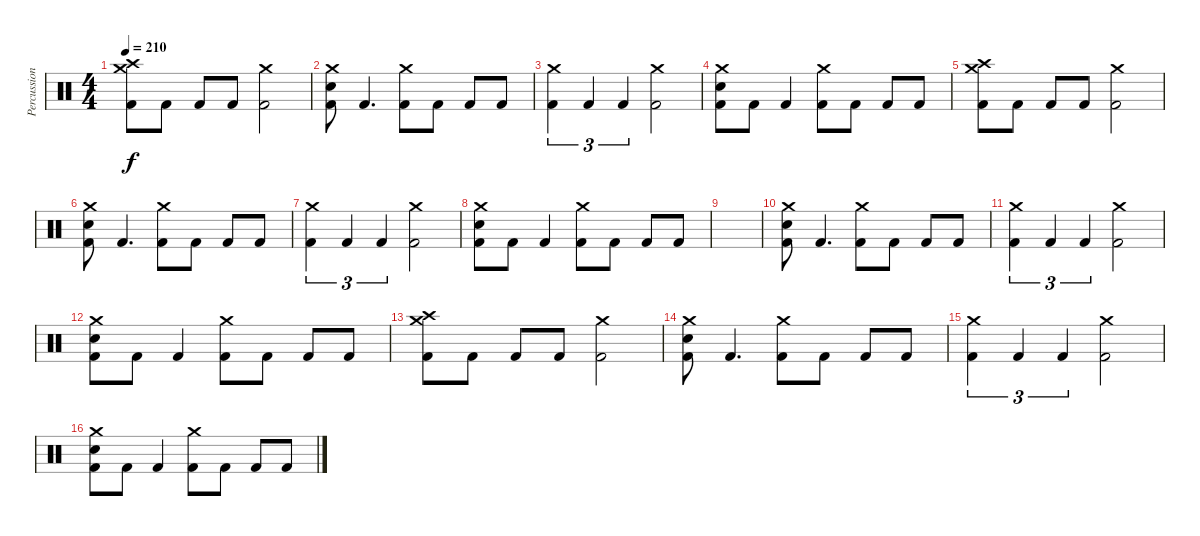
\track ("Percussion" "Percussion") {instrument percussion}
\staff {score}
\articulation defaults
\ts (4 4)
\tempo 210
\clef neutral
\ks c
("Crash high (hit)" "Crash medium (hit)" "Kick (hit) 2").8{dy f} "Kick (hit) 2".8 "Kick (hit) 2".8 "Kick (hit) 2".8 ("Crash medium (hit)" "Kick (hit) 2").2 |
("Crash medium (hit)" "Electric Snare (hit)" "Kick (hit) 2").8 "Kick (hit) 2".4{d} ("Crash medium (hit)" "Kick (hit) 2").8 "Kick (hit) 2".8 "Kick (hit) 2".8 "Kick (hit) 2".8 |
("Crash medium (hit)" "Kick (hit) 2").4{tu (3 2)} "Kick (hit) 2".4{tu (3 2)} "Kick (hit) 2".4{tu (3 2)} ("Crash medium (hit)" "Kick (hit) 2").2 |
("Crash medium (hit)" "Electric Snare (hit)" "Kick (hit) 2").8 "Kick (hit) 2".8 "Kick (hit) 2".4 ("Crash medium (hit)" "Kick (hit) 2").8 "Kick (hit) 2".8 "Kick (hit) 2".8 "Kick (hit) 2".8 |
("Crash high (hit)" "Crash medium (hit)" "Kick (hit) 2").8 "Kick (hit) 2".8 "Kick (hit) 2".8 "Kick (hit) 2".8 ("Crash medium (hit)" "Kick (hit) 2").2 |
("Crash medium (hit)" "Electric Snare (hit)" "Kick (hit) 2").8 "Kick (hit) 2".4{d} ("Crash medium (hit)" "Kick (hit) 2").8 "Kick (hit) 2".8 "Kick (hit) 2".8 "Kick (hit) 2".8 |
("Crash medium (hit)" "Kick (hit) 2").4{tu (3 2)} "Kick (hit) 2".4{tu (3 2)} "Kick (hit) 2".4{tu (3 2)} ("Crash medium (hit)" "Kick (hit) 2").2 |
("Crash medium (hit)" "Electric Snare (hit)" "Kick (hit) 2").8 "Kick (hit) 2".8 "Kick (hit) 2".4 ("Crash medium (hit)" "Kick (hit) 2").8 "Kick (hit) 2".8 "Kick (hit) 2".8 "Kick (hit) 2".8 |
|
("Crash medium (hit)" "Electric Snare (hit)" "Kick (hit) 2").8 "Kick (hit) 2".4{d} ("Crash medium (hit)" "Kick (hit) 2").8 "Kick (hit) 2".8 "Kick (hit) 2".8 "Kick (hit) 2".8 |
("Crash medium (hit)" "Kick (hit) 2").4{tu (3 2)} "Kick (hit) 2".4{tu (3 2)} "Kick (hit) 2".4{tu (3 2)} ("Crash medium (hit)" "Kick (hit) 2").2 |
("Crash medium (hit)" "Electric Snare (hit)" "Kick (hit) 2").8 "Kick (hit) 2".8 "Kick (hit) 2".4 ("Crash medium (hit)" "Kick (hit) 2").8 "Kick (hit) 2".8 "Kick (hit) 2".8 "Kick (hit) 2".8 |
("Crash high (hit)" "Crash medium (hit)" "Kick (hit) 2").8 "Kick (hit) 2".8 "Kick (hit) 2".8 "Kick (hit) 2".8 ("Crash medium (hit)" "Kick (hit) 2").2 |
("Crash medium (hit)" "Electric Snare (hit)" "Kick (hit) 2").8 "Kick (hit) 2".4{d} ("Crash medium (hit)" "Kick (hit) 2").8 "Kick (hit) 2".8 "Kick (hit) 2".8 "Kick (hit) 2".8 |
("Crash medium (hit)" "Kick (hit) 2").4{tu (3 2)} "Kick (hit) 2".4{tu (3 2)} "Kick (hit) 2".4{tu (3 2)} ("Crash medium (hit)" "Kick (hit) 2").2 |
("Crash medium (hit)" "Electric Snare (hit)" "Kick (hit) 2").8 "Kick (hit) 2".8 "Kick (hit) 2".4 ("Crash medium (hit)" "Kick (hit) 2").8 "Kick (hit) 2".8 "Kick (hit) 2".8 "Kick (hit) 2".8
